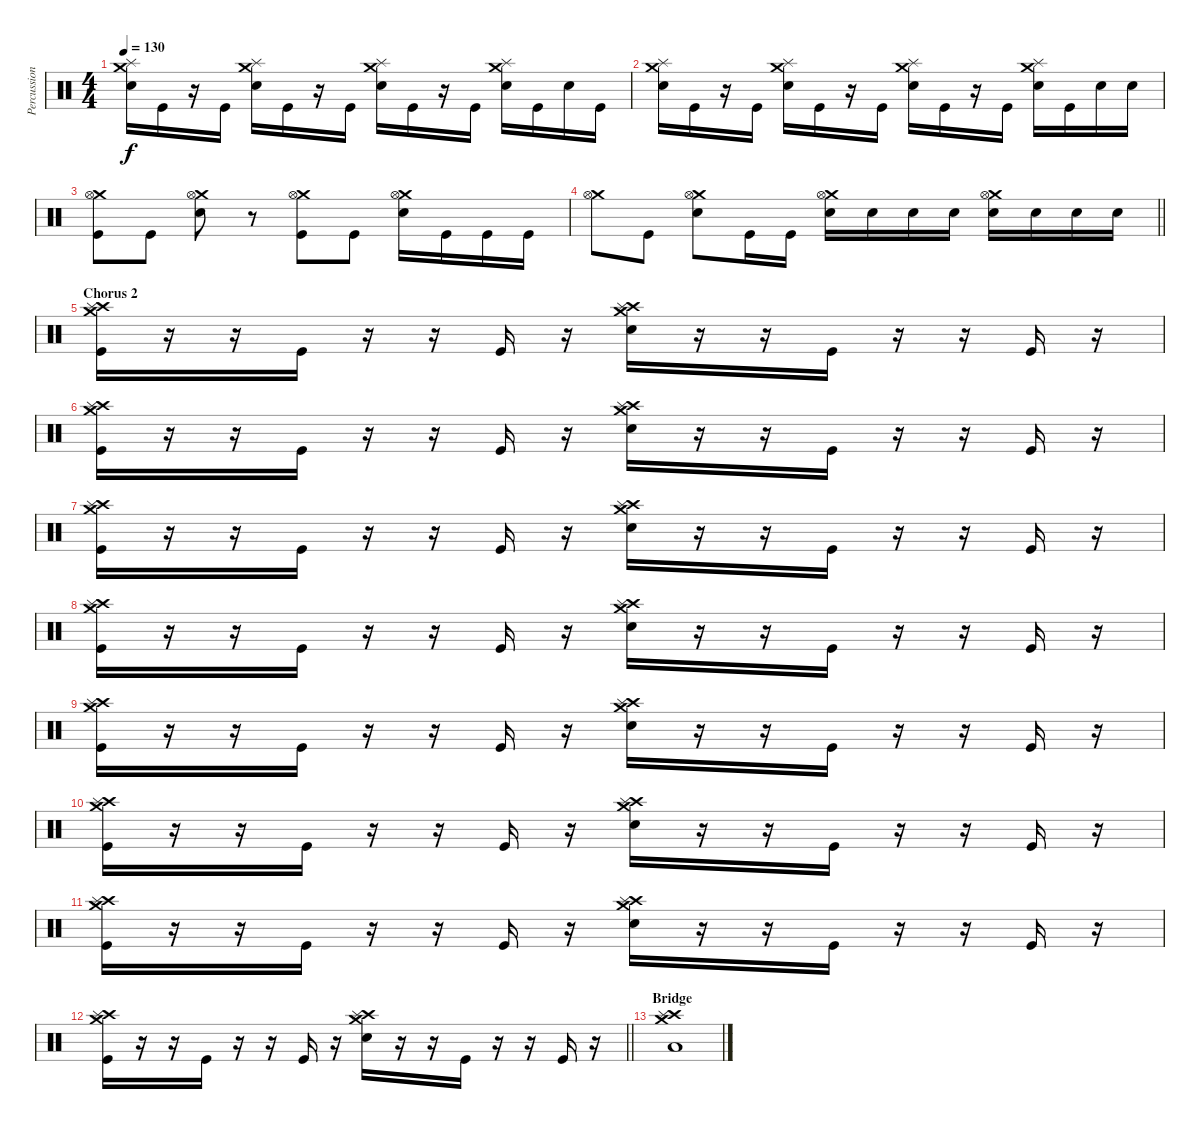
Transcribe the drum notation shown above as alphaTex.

\track ("Percussion (Approx.)" "Percussion") {instrument percussion}
\staff {score}
\articulation defaults
\ts (4 4)
\tempo 130
\clef neutral
\ks c
("Crash medium (hit)" "Splash (hit)" "Electric Snare (hit)").16{dy f} "Kick (hit)".16 r.16 "Kick (hit)".16 ("Crash medium (hit)" "Splash (hit)" "Electric Snare (hit)").16 "Kick (hit)".16 r.16 "Kick (hit)".16 ("Crash medium (hit)" "Splash (hit)" "Electric Snare (hit)").16 "Kick (hit)".16 r.16 "Kick (hit)".16 ("Crash medium (hit)" "Splash (hit)" "Electric Snare (hit)").16 "Kick (hit)".16 "Electric Snare (hit)".16 "Kick (hit)".16 |
("Crash medium (hit)" "Splash (hit)" "Electric Snare (hit)").16 "Kick (hit)".16 r.16 "Kick (hit)".16 ("Crash medium (hit)" "Splash (hit)" "Electric Snare (hit)").16 "Kick (hit)".16 r.16 "Kick (hit)".16 ("Crash medium (hit)" "Splash (hit)" "Electric Snare (hit)").16 "Kick (hit)".16 r.16 "Kick (hit)".16 ("Crash medium (hit)" "Splash (hit)" "Electric Snare (hit)").16 "Kick (hit)".16 "Electric Snare (hit)".16 "Electric Snare (hit)".16 |
("Crash medium (hit)" "Hi-Hat (open)" "Kick (hit)").8 "Kick (hit)".8 ("Crash medium (hit)" "Hi-Hat (open)" "Electric Snare (hit)").8 r.8 ("Crash medium (hit)" "Hi-Hat (open)" "Kick (hit)").8 "Kick (hit)".8 ("Crash medium (hit)" "Hi-Hat (open)" "Electric Snare (hit)").16 "Kick (hit)".16 "Kick (hit)".16 "Kick (hit)".16 |
\barLineRight lightlight
("Crash medium (hit)" "Hi-Hat (open)").8 "Kick (hit)".8 ("Crash medium (hit)" "Hi-Hat (open)" "Electric Snare (hit)").8 "Kick (hit)".16 "Kick (hit)".16 ("Crash medium (hit)" "Hi-Hat (open)" "Electric Snare (hit)").16 "Electric Snare (hit)".16 "Electric Snare (hit)".16 "Electric Snare (hit)".16 ("Crash medium (hit)" "Hi-Hat (open)" "Electric Snare (hit)").16 "Electric Snare (hit)".16 "Electric Snare (hit)".16 "Electric Snare (hit)".16 |
\section ("" "Chorus 2")
("Crash medium (hit)" "Crash high (hit)" "Splash (hit)" "Kick (hit)").16 r.16 r.16 "Kick (hit)".16 r.16 r.16 "Kick (hit)".16 r.16 ("Crash medium (hit)" "Crash high (hit)" "Splash (hit)" "Electric Snare (hit)").16 r.16 r.16 "Kick (hit)".16 r.16 r.16 "Kick (hit)".16 r.16 |
("Crash medium (hit)" "Crash high (hit)" "Splash (hit)" "Kick (hit)").16 r.16 r.16 "Kick (hit)".16 r.16 r.16 "Kick (hit)".16 r.16 ("Crash medium (hit)" "Crash high (hit)" "Splash (hit)" "Electric Snare (hit)").16 r.16 r.16 "Kick (hit)".16 r.16 r.16 "Kick (hit)".16 r.16 |
("Crash medium (hit)" "Crash high (hit)" "Splash (hit)" "Kick (hit)").16 r.16 r.16 "Kick (hit)".16 r.16 r.16 "Kick (hit)".16 r.16 ("Crash medium (hit)" "Crash high (hit)" "Splash (hit)" "Electric Snare (hit)").16 r.16 r.16 "Kick (hit)".16 r.16 r.16 "Kick (hit)".16 r.16 |
("Crash medium (hit)" "Crash high (hit)" "Splash (hit)" "Kick (hit)").16 r.16 r.16 "Kick (hit)".16 r.16 r.16 "Kick (hit)".16 r.16 ("Crash medium (hit)" "Crash high (hit)" "Splash (hit)" "Electric Snare (hit)").16 r.16 r.16 "Kick (hit)".16 r.16 r.16 "Kick (hit)".16 r.16 |
("Crash medium (hit)" "Crash high (hit)" "Splash (hit)" "Kick (hit)").16 r.16 r.16 "Kick (hit)".16 r.16 r.16 "Kick (hit)".16 r.16 ("Crash medium (hit)" "Crash high (hit)" "Splash (hit)" "Electric Snare (hit)").16 r.16 r.16 "Kick (hit)".16 r.16 r.16 "Kick (hit)".16 r.16 |
("Crash medium (hit)" "Crash high (hit)" "Splash (hit)" "Kick (hit)").16 r.16 r.16 "Kick (hit)".16 r.16 r.16 "Kick (hit)".16 r.16 ("Crash medium (hit)" "Crash high (hit)" "Splash (hit)" "Electric Snare (hit)").16 r.16 r.16 "Kick (hit)".16 r.16 r.16 "Kick (hit)".16 r.16 |
("Crash medium (hit)" "Crash high (hit)" "Splash (hit)" "Kick (hit)").16 r.16 r.16 "Kick (hit)".16 r.16 r.16 "Kick (hit)".16 r.16 ("Crash medium (hit)" "Crash high (hit)" "Splash (hit)" "Electric Snare (hit)").16 r.16 r.16 "Kick (hit)".16 r.16 r.16 "Kick (hit)".16 r.16 |
\barLineRight lightlight
("Crash medium (hit)" "Crash high (hit)" "Splash (hit)" "Kick (hit)").16 r.16 r.16 "Kick (hit)".16 r.16 r.16 "Kick (hit)".16 r.16 ("Crash medium (hit)" "Crash high (hit)" "Splash (hit)" "Electric Snare (hit)").16 r.16 r.16 "Kick (hit)".16 r.16 r.16 "Kick (hit)".16 r.16 |
\section ("" "Bridge")
("Crash high (hit)" "Splash (hit)" "Crash medium (hit)" "Low Tom (hit)").1
